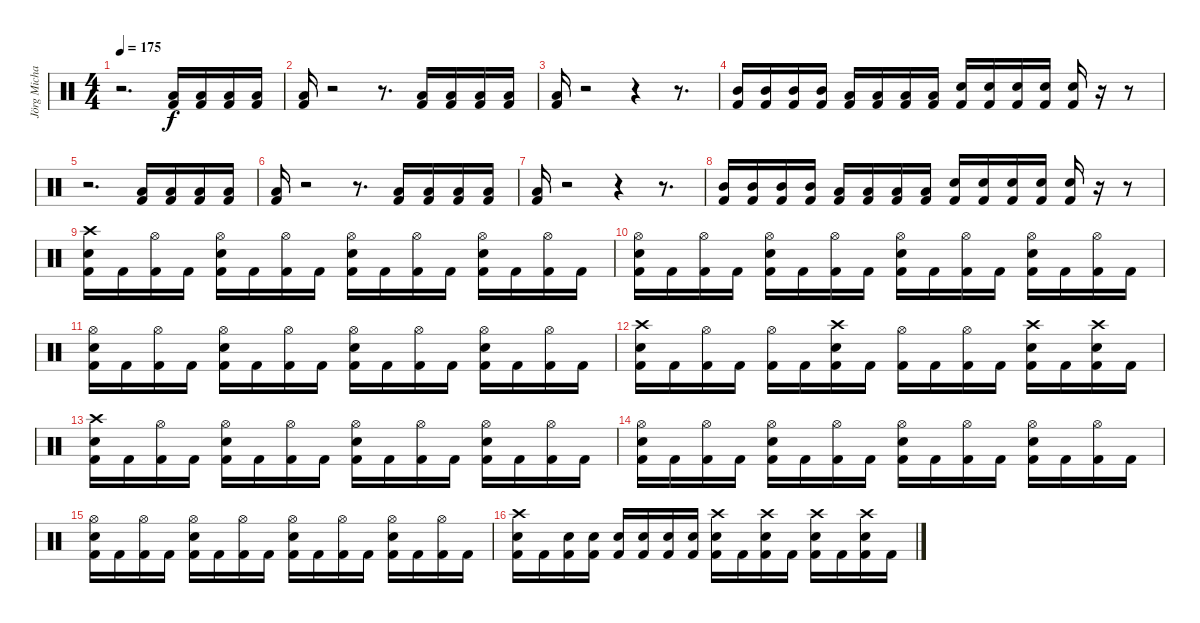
\track ("Jörg Michael" "Jörg Micha") {instrument percussion}
\staff {score}
\articulation defaults
\ts (4 4)
\tempo 175
\clef neutral
\ks c
r.2{d dy f} ("Kick (hit) 2" "Low Tom (hit)").16 ("Kick (hit) 2" "Low Tom (hit)").16 ("Kick (hit) 2" "Low Tom (hit)").16 ("Kick (hit) 2" "Low Tom (hit)").16 |
("Kick (hit) 2" "Low Tom (hit)").16 r.2 r.8{d} ("Kick (hit) 2" "Low Tom (hit)").16 ("Kick (hit) 2" "Low Tom (hit)").16 ("Kick (hit) 2" "Low Tom (hit)").16 ("Kick (hit) 2" "Low Tom (hit)").16 |
("Kick (hit) 2" "Low Tom (hit)").16 r.2 r.4 r.8{d} |
("Kick (hit) 2" "Mid Tom (hit)").16 ("Kick (hit) 2" "Mid Tom (hit)").16 ("Kick (hit) 2" "Mid Tom (hit)").16 ("Kick (hit) 2" "Mid Tom (hit)").16 ("Kick (hit) 2" "Low Tom (hit)").16 ("Kick (hit) 2" "Low Tom (hit)").16 ("Kick (hit) 2" "Low Tom (hit)").16 ("Kick (hit) 2" "Low Tom (hit)").16 ("Kick (hit) 2" "Electric Snare (hit)").16 ("Kick (hit) 2" "Electric Snare (hit)").16 ("Kick (hit) 2" "Electric Snare (hit)").16 ("Kick (hit) 2" "Electric Snare (hit)").16 ("Kick (hit) 2" "Electric Snare (hit)").16 r.16 r.8 |
r.2{d} ("Kick (hit) 2" "Low Tom (hit)").16 ("Kick (hit) 2" "Low Tom (hit)").16 ("Kick (hit) 2" "Low Tom (hit)").16 ("Kick (hit) 2" "Low Tom (hit)").16 |
("Kick (hit) 2" "Low Tom (hit)").16 r.2 r.8{d} ("Kick (hit) 2" "Low Tom (hit)").16 ("Kick (hit) 2" "Low Tom (hit)").16 ("Kick (hit) 2" "Low Tom (hit)").16 ("Kick (hit) 2" "Low Tom (hit)").16 |
("Kick (hit) 2" "Low Tom (hit)").16 r.2 r.4 r.8{d} |
("Kick (hit) 2" "Mid Tom (hit)").16 ("Kick (hit) 2" "Mid Tom (hit)").16 ("Kick (hit) 2" "Mid Tom (hit)").16 ("Kick (hit) 2" "Mid Tom (hit)").16 ("Kick (hit) 2" "Low Tom (hit)").16 ("Kick (hit) 2" "Low Tom (hit)").16 ("Kick (hit) 2" "Low Tom (hit)").16 ("Kick (hit) 2" "Low Tom (hit)").16 ("Kick (hit) 2" "Electric Snare (hit)").16 ("Kick (hit) 2" "Electric Snare (hit)").16 ("Kick (hit) 2" "Electric Snare (hit)").16 ("Kick (hit) 2" "Electric Snare (hit)").16 ("Kick (hit) 2" "Electric Snare (hit)").16 r.16 r.8 |
("Kick (hit) 2" "Electric Snare (hit)" "Crash high (hit)").16 "Kick (hit) 2".16 ("Kick (hit) 2" "Hi-Hat (open)").16 "Kick (hit) 2".16 ("Kick (hit) 2" "Electric Snare (hit)" "Hi-Hat (open)").16 "Kick (hit) 2".16 ("Kick (hit) 2" "Hi-Hat (open)").16 "Kick (hit) 2".16 ("Kick (hit) 2" "Electric Snare (hit)" "Hi-Hat (open)").16 "Kick (hit) 2".16 ("Kick (hit) 2" "Hi-Hat (open)").16 "Kick (hit) 2".16 ("Kick (hit) 2" "Electric Snare (hit)" "Hi-Hat (open)").16 "Kick (hit) 2".16 ("Kick (hit) 2" "Hi-Hat (open)").16 "Kick (hit) 2".16 |
("Kick (hit) 2" "Electric Snare (hit)" "Hi-Hat (open)").16 "Kick (hit) 2".16 ("Kick (hit) 2" "Hi-Hat (open)").16 "Kick (hit) 2".16 ("Kick (hit) 2" "Electric Snare (hit)" "Hi-Hat (open)").16 "Kick (hit) 2".16 ("Kick (hit) 2" "Hi-Hat (open)").16 "Kick (hit) 2".16 ("Kick (hit) 2" "Electric Snare (hit)" "Hi-Hat (open)").16 "Kick (hit) 2".16 ("Kick (hit) 2" "Hi-Hat (open)").16 "Kick (hit) 2".16 ("Kick (hit) 2" "Electric Snare (hit)" "Hi-Hat (open)").16 "Kick (hit) 2".16 ("Kick (hit) 2" "Hi-Hat (open)").16 "Kick (hit) 2".16 |
("Kick (hit) 2" "Electric Snare (hit)" "Hi-Hat (open)").16 "Kick (hit) 2".16 ("Kick (hit) 2" "Hi-Hat (open)").16 "Kick (hit) 2".16 ("Kick (hit) 2" "Electric Snare (hit)" "Hi-Hat (open)").16 "Kick (hit) 2".16 ("Kick (hit) 2" "Hi-Hat (open)").16 "Kick (hit) 2".16 ("Kick (hit) 2" "Electric Snare (hit)" "Hi-Hat (open)").16 "Kick (hit) 2".16 ("Kick (hit) 2" "Hi-Hat (open)").16 "Kick (hit) 2".16 ("Kick (hit) 2" "Electric Snare (hit)" "Hi-Hat (open)").16 "Kick (hit) 2".16 ("Kick (hit) 2" "Hi-Hat (open)").16 "Kick (hit) 2".16 |
("Kick (hit) 2" "Electric Snare (hit)" "Crash high (hit)").16 "Kick (hit) 2".16 ("Kick (hit) 2" "Hi-Hat (open)").16 "Kick (hit) 2".16 ("Kick (hit) 2" "Hi-Hat (open)").16 "Kick (hit) 2".16 ("Kick (hit) 2" "Electric Snare (hit)" "Crash high (hit)").16 "Kick (hit) 2".16 ("Kick (hit) 2" "Hi-Hat (open)").16 "Kick (hit) 2".16 ("Kick (hit) 2" "Hi-Hat (open)").16 "Kick (hit) 2".16 ("Kick (hit) 2" "Electric Snare (hit)" "Crash high (hit)").16 "Kick (hit) 2".16 ("Kick (hit) 2" "Electric Snare (hit)" "Crash high (hit)").16 "Kick (hit) 2".16 |
("Kick (hit) 2" "Electric Snare (hit)" "Crash high (hit)").16 "Kick (hit) 2".16 ("Kick (hit) 2" "Hi-Hat (open)").16 "Kick (hit) 2".16 ("Kick (hit) 2" "Electric Snare (hit)" "Hi-Hat (open)").16 "Kick (hit) 2".16 ("Kick (hit) 2" "Hi-Hat (open)").16 "Kick (hit) 2".16 ("Kick (hit) 2" "Electric Snare (hit)" "Hi-Hat (open)").16 "Kick (hit) 2".16 ("Kick (hit) 2" "Hi-Hat (open)").16 "Kick (hit) 2".16 ("Kick (hit) 2" "Electric Snare (hit)" "Hi-Hat (open)").16 "Kick (hit) 2".16 ("Kick (hit) 2" "Hi-Hat (open)").16 "Kick (hit) 2".16 |
("Kick (hit) 2" "Electric Snare (hit)" "Hi-Hat (open)").16 "Kick (hit) 2".16 ("Kick (hit) 2" "Hi-Hat (open)").16 "Kick (hit) 2".16 ("Kick (hit) 2" "Electric Snare (hit)" "Hi-Hat (open)").16 "Kick (hit) 2".16 ("Kick (hit) 2" "Hi-Hat (open)").16 "Kick (hit) 2".16 ("Kick (hit) 2" "Electric Snare (hit)" "Hi-Hat (open)").16 "Kick (hit) 2".16 ("Kick (hit) 2" "Hi-Hat (open)").16 "Kick (hit) 2".16 ("Kick (hit) 2" "Electric Snare (hit)" "Hi-Hat (open)").16 "Kick (hit) 2".16 ("Kick (hit) 2" "Hi-Hat (open)").16 "Kick (hit) 2".16 |
("Kick (hit) 2" "Electric Snare (hit)" "Hi-Hat (open)").16 "Kick (hit) 2".16 ("Kick (hit) 2" "Hi-Hat (open)").16 "Kick (hit) 2".16 ("Kick (hit) 2" "Electric Snare (hit)" "Hi-Hat (open)").16 "Kick (hit) 2".16 ("Kick (hit) 2" "Hi-Hat (open)").16 "Kick (hit) 2".16 ("Kick (hit) 2" "Electric Snare (hit)" "Hi-Hat (open)").16 "Kick (hit) 2".16 ("Kick (hit) 2" "Hi-Hat (open)").16 "Kick (hit) 2".16 ("Kick (hit) 2" "Electric Snare (hit)" "Hi-Hat (open)").16 "Kick (hit) 2".16 ("Kick (hit) 2" "Hi-Hat (open)").16 "Kick (hit) 2".16 |
("Kick (hit) 2" "Electric Snare (hit)" "Crash high (hit)").16 "Kick (hit) 2".16 ("Kick (hit) 2" "Electric Snare (hit)").16 ("Kick (hit) 2" "Electric Snare (hit)").16 ("Kick (hit) 2" "Electric Snare (hit)").16 ("Kick (hit) 2" "Electric Snare (hit)").16 ("Kick (hit) 2" "Electric Snare (hit)").16 ("Kick (hit) 2" "Electric Snare (hit)").16 ("Kick (hit) 2" "Electric Snare (hit)" "Crash high (hit)").16 "Kick (hit) 2".16 ("Kick (hit) 2" "Electric Snare (hit)" "Crash high (hit)").16 "Kick (hit) 2".16 ("Kick (hit) 2" "Electric Snare (hit)" "Crash high (hit)").16 "Kick (hit) 2".16 ("Kick (hit) 2" "Electric Snare (hit)" "Crash high (hit)").16 "Kick (hit) 2".16
